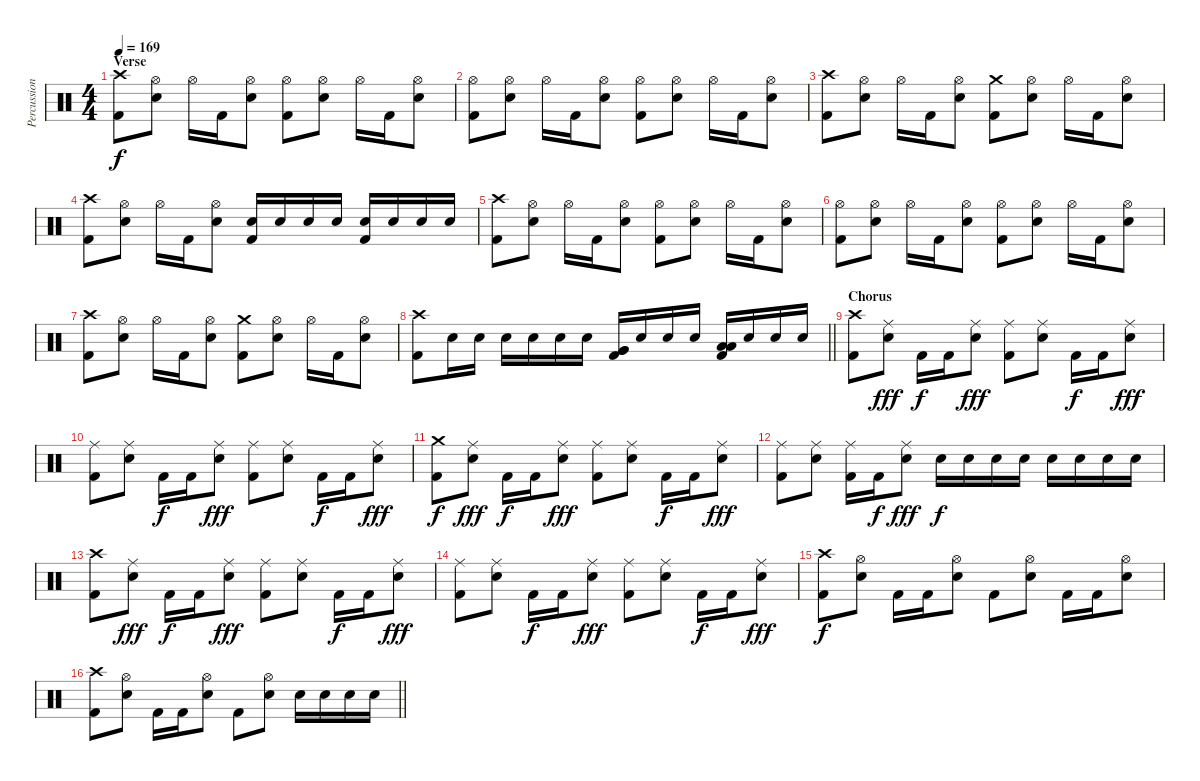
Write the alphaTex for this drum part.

\track ("Percussion" "Percussion") {instrument percussion}
\staff {score}
\articulation defaults
\ts (4 4)
\section ("" "Verse")
\tempo 169
\clef neutral
\ks c
("Crash high (hit)" "Kick (hit) 2").8{dy f} ("Hi-Hat (open)" "Electric Snare (hit)").8 "Hi-Hat (open)".16 "Kick (hit) 2".16 ("Hi-Hat (open)" "Electric Snare (hit)").8 ("Hi-Hat (open)" "Kick (hit) 2").8 ("Hi-Hat (open)" "Electric Snare (hit)").8 "Hi-Hat (open)".16 "Kick (hit) 2".16 ("Hi-Hat (open)" "Electric Snare (hit)").8 |
("Hi-Hat (open)" "Kick (hit) 2").8 ("Hi-Hat (open)" "Electric Snare (hit)").8 "Hi-Hat (open)".16 "Kick (hit) 2".16 ("Hi-Hat (open)" "Electric Snare (hit)").8 ("Hi-Hat (open)" "Kick (hit) 2").8 ("Hi-Hat (open)" "Electric Snare (hit)").8 "Hi-Hat (open)".16 "Kick (hit) 2".16 ("Hi-Hat (open)" "Electric Snare (hit)").8 |
("Crash high (hit)" "Kick (hit) 2").8 ("Hi-Hat (open)" "Electric Snare (hit)").8 "Hi-Hat (open)".16 "Kick (hit) 2".16 ("Hi-Hat (open)" "Electric Snare (hit)").8 ("Crash medium (hit)" "Kick (hit) 2").8 ("Hi-Hat (open)" "Electric Snare (hit)").8 "Hi-Hat (open)".16 "Kick (hit) 2".16 ("Hi-Hat (open)" "Electric Snare (hit)").8 |
("Crash high (hit)" "Kick (hit) 2").8 ("Hi-Hat (open)" "Electric Snare (hit)").8 "Hi-Hat (open)".16 "Kick (hit) 2".16 ("Hi-Hat (open)" "Electric Snare (hit)").8 ("Electric Snare (hit)" "Kick (hit) 2").16 "Electric Snare (hit)".16 "Electric Snare (hit)".16 "Electric Snare (hit)".16 ("Electric Snare (hit)" "Kick (hit) 2").16 "Electric Snare (hit)".16 "Electric Snare (hit)".16 "Electric Snare (hit)".16 |
("Crash high (hit)" "Kick (hit) 2").8 ("Hi-Hat (open)" "Electric Snare (hit)").8 "Hi-Hat (open)".16 "Kick (hit) 2".16 ("Hi-Hat (open)" "Electric Snare (hit)").8 ("Hi-Hat (open)" "Kick (hit) 2").8 ("Hi-Hat (open)" "Electric Snare (hit)").8 "Hi-Hat (open)".16 "Kick (hit) 2".16 ("Hi-Hat (open)" "Electric Snare (hit)").8 |
("Hi-Hat (open)" "Kick (hit) 2").8 ("Hi-Hat (open)" "Electric Snare (hit)").8 "Hi-Hat (open)".16 "Kick (hit) 2".16 ("Hi-Hat (open)" "Electric Snare (hit)").8 ("Hi-Hat (open)" "Kick (hit) 2").8 ("Hi-Hat (open)" "Electric Snare (hit)").8 "Hi-Hat (open)".16 "Kick (hit) 2".16 ("Hi-Hat (open)" "Electric Snare (hit)").8 |
("Crash high (hit)" "Kick (hit) 2").8 ("Hi-Hat (open)" "Electric Snare (hit)").8 "Hi-Hat (open)".16 "Kick (hit) 2".16 ("Hi-Hat (open)" "Electric Snare (hit)").8 ("Crash medium (hit)" "Kick (hit) 2").8 ("Hi-Hat (open)" "Electric Snare (hit)").8 "Hi-Hat (open)".16 "Kick (hit) 2".16 ("Hi-Hat (open)" "Electric Snare (hit)").8 |
\barLineRight lightlight
("Crash high (hit)" "Kick (hit) 2").8 "Electric Snare (hit)".16 "Electric Snare (hit)".16 "Electric Snare (hit)".16 "Electric Snare (hit)".16 "Electric Snare (hit)".16 "Electric Snare (hit)".16 ("Very Low Tom (hit)" "Very Low Tom (hit)" "Kick (hit) 2").16 "Electric Snare (hit)".16 "Electric Snare (hit)".16 "Electric Snare (hit)".16 ("Low Tom (hit)" "Low Tom (hit)" "Kick (hit) 2").16 "Electric Snare (hit)".16 "Electric Snare (hit)".16 "Electric Snare (hit)".16 |
\section ("" "Chorus")
("Crash high (hit)" "Kick (hit) 2").8 ("Ride (middle)" "Electric Snare (hit)").8{dy fff} "Kick (hit) 2".16{dy f} "Kick (hit) 2".16 ("Ride (middle)" "Electric Snare (hit)").8{dy fff} ("Ride (middle)" "Kick (hit) 2").8 ("Ride (middle)" "Electric Snare (hit)").8 "Kick (hit) 2".16{dy f} "Kick (hit) 2".16 ("Ride (middle)" "Electric Snare (hit)").8{dy fff} |
("Ride (middle)" "Kick (hit) 2").8 ("Ride (middle)" "Electric Snare (hit)").8 "Kick (hit) 2".16{dy f} "Kick (hit) 2".16 ("Ride (middle)" "Electric Snare (hit)").8{dy fff} ("Ride (middle)" "Kick (hit) 2").8 ("Ride (middle)" "Electric Snare (hit)").8 "Kick (hit) 2".16{dy f} "Kick (hit) 2".16 ("Ride (middle)" "Electric Snare (hit)").8{dy fff} |
("Crash medium (hit)" "Kick (hit) 2").8{dy f} ("Ride (middle)" "Electric Snare (hit)").8{dy fff} "Kick (hit) 2".16{dy f} "Kick (hit) 2".16 ("Ride (middle)" "Electric Snare (hit)").8{dy fff} ("Ride (middle)" "Kick (hit) 2").8 ("Ride (middle)" "Electric Snare (hit)").8 "Kick (hit) 2".16{dy f} "Kick (hit) 2".16 ("Ride (middle)" "Electric Snare (hit)").8{dy fff} |
("Ride (middle)" "Kick (hit) 2").8 ("Ride (middle)" "Electric Snare (hit)").8 ("Ride (middle)" "Kick (hit) 2").16 "Kick (hit) 2".16{dy f} ("Ride (middle)" "Electric Snare (hit)").8{dy fff} "Electric Snare (hit)".16{dy f} "Electric Snare (hit)".16 "Electric Snare (hit)".16 "Electric Snare (hit)".16 "Electric Snare (hit)".16 "Electric Snare (hit)".16 "Electric Snare (hit)".16 "Electric Snare (hit)".16 |
("Crash high (hit)" "Kick (hit) 2").8 ("Ride (middle)" "Electric Snare (hit)").8{dy fff} "Kick (hit) 2".16{dy f} "Kick (hit) 2".16 ("Ride (middle)" "Electric Snare (hit)").8{dy fff} ("Ride (middle)" "Kick (hit) 2").8 ("Ride (middle)" "Electric Snare (hit)").8 "Kick (hit) 2".16{dy f} "Kick (hit) 2".16 ("Ride (middle)" "Electric Snare (hit)").8{dy fff} |
("Ride (middle)" "Kick (hit) 2").8 ("Ride (middle)" "Electric Snare (hit)").8 "Kick (hit) 2".16{dy f} "Kick (hit) 2".16 ("Ride (middle)" "Electric Snare (hit)").8{dy fff} ("Ride (middle)" "Kick (hit) 2").8 ("Ride (middle)" "Electric Snare (hit)").8 "Kick (hit) 2".16{dy f} "Kick (hit) 2".16 ("Ride (middle)" "Electric Snare (hit)").8{dy fff} |
("Crash high (hit)" "Kick (hit) 2").8{dy f} ("Hi-Hat (open)" "Electric Snare (hit)").8 "Kick (hit) 2".16 "Kick (hit) 2".16 ("Hi-Hat (open)" "Electric Snare (hit)").8 "Kick (hit) 2".8 ("Hi-Hat (open)" "Electric Snare (hit)").8 "Kick (hit) 2".16 "Kick (hit) 2".16 ("Hi-Hat (open)" "Electric Snare (hit)").8 |
\barLineRight lightlight
("Crash high (hit)" "Kick (hit) 2").8 ("Hi-Hat (open)" "Electric Snare (hit)").8 "Kick (hit) 2".16 "Kick (hit) 2".16 ("Hi-Hat (open)" "Electric Snare (hit)").8 "Kick (hit) 2".8 ("Hi-Hat (open)" "Electric Snare (hit)").8 "Electric Snare (hit)".16 "Electric Snare (hit)".16 "Electric Snare (hit)".16 "Electric Snare (hit)".16
